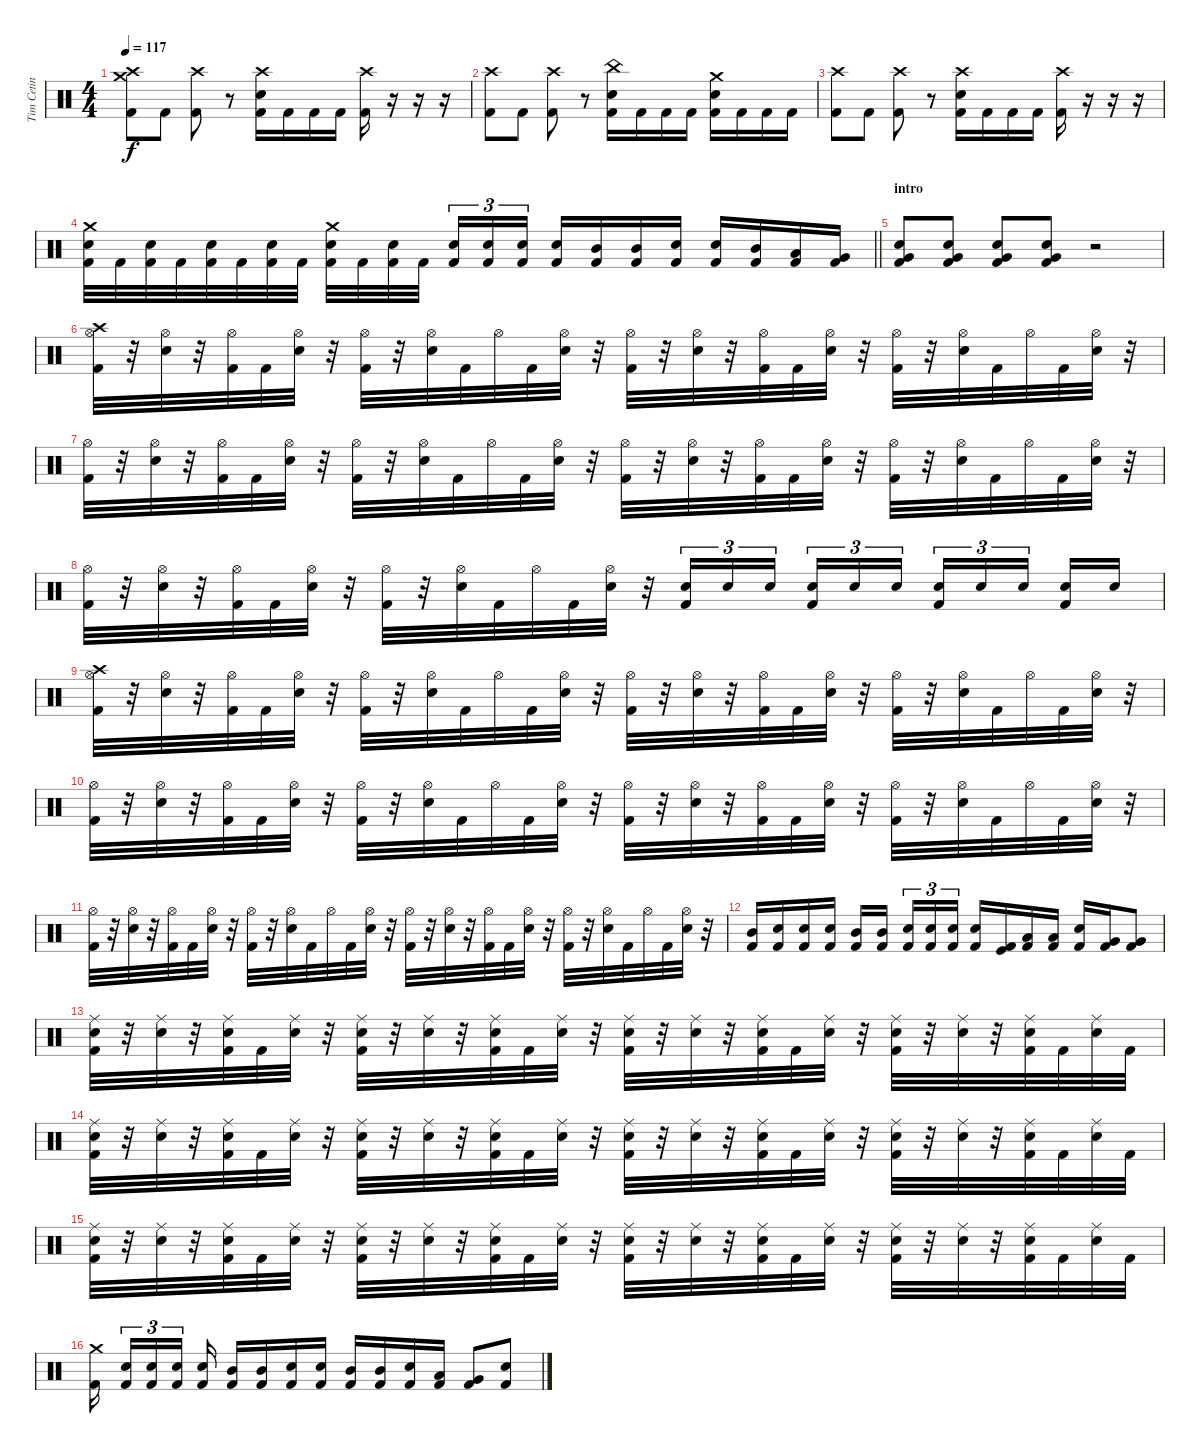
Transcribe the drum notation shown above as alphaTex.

\track ("Tim Cetin" "Tim Cetin") {instrument percussion}
\staff {score}
\articulation defaults
\ts (4 4)
\tempo 117
\clef neutral
\ks c
("Crash medium (hit)" "Crash high (hit)" "Kick (hit) 2").8{dy f} "Kick (hit) 2".8 ("Crash high (hit)" "Kick (hit) 2").8 r.8 ("Crash high (hit)" "Snare (hit) 2" "Kick (hit) 2").16 "Kick (hit) 2".16 "Kick (hit) 2".16 "Kick (hit) 2".16 ("Crash high (hit)" "Kick (hit) 2").16 r.16 r.16 r.16 |
("Crash high (hit)" "Kick (hit) 2").8 "Kick (hit) 2".8 ("Crash high (hit)" "Kick (hit) 2").8 r.8 ("China (hit)" "Snare (hit) 2" "Kick (hit) 2").16 "Kick (hit) 2".16 "Kick (hit) 2".16 "Kick (hit) 2".16 ("Crash medium (hit)" "Snare (hit) 2" "Kick (hit) 2").16 "Kick (hit) 2".16 "Kick (hit) 2".16 "Kick (hit) 2".16 |
("Crash high (hit)" "Kick (hit) 2").8 "Kick (hit) 2".8 ("Crash high (hit)" "Kick (hit) 2").8 r.8 ("Crash high (hit)" "Snare (hit) 2" "Kick (hit) 2").16 "Kick (hit) 2".16 "Kick (hit) 2".16 "Kick (hit) 2".16 ("Crash high (hit)" "Kick (hit) 2").16 r.16 r.16 r.16 |
\barLineRight lightlight
("Crash medium (hit)" "Snare (hit) 2" "Kick (hit) 2").32 "Kick (hit) 2".32 ("Snare (hit) 2" "Kick (hit) 2").32 "Kick (hit) 2".32 ("Snare (hit) 2" "Kick (hit) 2").32 "Kick (hit) 2".32 ("Snare (hit) 2" "Kick (hit) 2").32 "Kick (hit) 2".32 ("Crash medium (hit)" "Snare (hit) 2" "Kick (hit) 2").32 "Kick (hit) 2".32 ("Snare (hit) 2" "Kick (hit) 2").32 "Kick (hit) 2".32{beam splitsecondary} ("Snare (hit) 2" "Kick (hit) 2").16{tu (3 2)} ("Snare (hit) 2" "Kick (hit) 2").16{tu (3 2)} ("Snare (hit) 2" "Kick (hit) 2").16{tu (3 2)} ("Snare (hit) 2" "Kick (hit) 2").16 ("Mid Tom (hit)" "Kick (hit) 2").16 ("Mid Tom (hit)" "Kick (hit) 2").16 ("Snare (hit) 2" "Kick (hit) 2").16 ("Snare (hit) 2" "Kick (hit) 2").16 ("Mid Tom (hit)" "Kick (hit) 2").16 ("Low Tom (hit)" "Kick (hit) 2").16 ("Very Low Tom (hit)" "Kick (hit) 2").16 |
\section ("" "intro")
("Snare (hit) 2" "Very Low Tom (hit)" "Kick (hit) 2").8 ("Snare (hit) 2" "Very Low Tom (hit)" "Kick (hit) 2").8 ("Snare (hit) 2" "Very Low Tom (hit)" "Kick (hit) 2").8 ("Snare (hit) 2" "Very Low Tom (hit)" "Kick (hit) 2").8 r.2 |
("Crash high (hit)" "Hi-Hat (open)" "Kick (hit) 2").32 r.32 ("Hi-Hat (open)" "Snare (hit) 2").32 r.32 ("Hi-Hat (open)" "Kick (hit) 2").32 "Kick (hit) 2".32 ("Hi-Hat (open)" "Snare (hit) 2").32 r.32 ("Hi-Hat (open)" "Kick (hit) 2").32 r.32 ("Hi-Hat (open)" "Snare (hit) 2").32 "Kick (hit) 2".32 "Hi-Hat (open)".32 "Kick (hit) 2".32 ("Hi-Hat (open)" "Snare (hit) 2").32 r.32 ("Hi-Hat (open)" "Kick (hit) 2").32 r.32 ("Hi-Hat (open)" "Snare (hit) 2").32 r.32 ("Hi-Hat (open)" "Kick (hit) 2").32 "Kick (hit) 2".32 ("Hi-Hat (open)" "Snare (hit) 2").32 r.32 ("Hi-Hat (open)" "Kick (hit) 2").32 r.32 ("Hi-Hat (open)" "Snare (hit) 2").32 "Kick (hit) 2".32 "Hi-Hat (open)".32 "Kick (hit) 2".32 ("Hi-Hat (open)" "Snare (hit) 2").32 r.32 |
("Hi-Hat (open)" "Kick (hit) 2").32 r.32 ("Hi-Hat (open)" "Snare (hit) 2").32 r.32 ("Hi-Hat (open)" "Kick (hit) 2").32 "Kick (hit) 2".32 ("Hi-Hat (open)" "Snare (hit) 2").32 r.32 ("Hi-Hat (open)" "Kick (hit) 2").32 r.32 ("Hi-Hat (open)" "Snare (hit) 2").32 "Kick (hit) 2".32 "Hi-Hat (open)".32 "Kick (hit) 2".32 ("Hi-Hat (open)" "Snare (hit) 2").32 r.32 ("Hi-Hat (open)" "Kick (hit) 2").32 r.32 ("Hi-Hat (open)" "Snare (hit) 2").32 r.32 ("Hi-Hat (open)" "Kick (hit) 2").32 "Kick (hit) 2".32 ("Hi-Hat (open)" "Snare (hit) 2").32 r.32 ("Hi-Hat (open)" "Kick (hit) 2").32 r.32 ("Hi-Hat (open)" "Snare (hit) 2").32 "Kick (hit) 2".32 "Hi-Hat (open)".32 "Kick (hit) 2".32 ("Hi-Hat (open)" "Snare (hit) 2").32 r.32 |
("Hi-Hat (open)" "Kick (hit) 2").32 r.32 ("Hi-Hat (open)" "Snare (hit) 2").32 r.32 ("Hi-Hat (open)" "Kick (hit) 2").32 "Kick (hit) 2".32 ("Hi-Hat (open)" "Snare (hit) 2").32 r.32 ("Hi-Hat (open)" "Kick (hit) 2").32 r.32 ("Hi-Hat (open)" "Snare (hit) 2").32 "Kick (hit) 2".32 "Hi-Hat (open)".32 "Kick (hit) 2".32 ("Hi-Hat (open)" "Snare (hit) 2").32 r.32 ("Snare (hit) 2" "Kick (hit) 2").16{tu (3 2)} "Snare (hit) 2".16{tu (3 2)} "Snare (hit) 2".16{tu (3 2) beam splitsecondary} ("Snare (hit) 2" "Kick (hit) 2").16{tu (3 2)} "Snare (hit) 2".16{tu (3 2)} "Snare (hit) 2".16{tu (3 2)} ("Snare (hit) 2" "Kick (hit) 2").16{tu (3 2)} "Snare (hit) 2".16{tu (3 2)} "Snare (hit) 2".16{tu (3 2) beam splitsecondary} ("Snare (hit) 2" "Kick (hit) 2").16 "Snare (hit) 2".16 |
("Crash high (hit)" "Hi-Hat (open)" "Kick (hit) 2").32 r.32 ("Hi-Hat (open)" "Snare (hit) 2").32 r.32 ("Hi-Hat (open)" "Kick (hit) 2").32 "Kick (hit) 2".32 ("Hi-Hat (open)" "Snare (hit) 2").32 r.32 ("Hi-Hat (open)" "Kick (hit) 2").32 r.32 ("Hi-Hat (open)" "Snare (hit) 2").32 "Kick (hit) 2".32 "Hi-Hat (open)".32 "Kick (hit) 2".32 ("Hi-Hat (open)" "Snare (hit) 2").32 r.32 ("Hi-Hat (open)" "Kick (hit) 2").32 r.32 ("Hi-Hat (open)" "Snare (hit) 2").32 r.32 ("Hi-Hat (open)" "Kick (hit) 2").32 "Kick (hit) 2".32 ("Hi-Hat (open)" "Snare (hit) 2").32 r.32 ("Hi-Hat (open)" "Kick (hit) 2").32 r.32 ("Hi-Hat (open)" "Snare (hit) 2").32 "Kick (hit) 2".32 "Hi-Hat (open)".32 "Kick (hit) 2".32 ("Hi-Hat (open)" "Snare (hit) 2").32 r.32 |
("Hi-Hat (open)" "Kick (hit) 2").32 r.32 ("Hi-Hat (open)" "Snare (hit) 2").32 r.32 ("Hi-Hat (open)" "Kick (hit) 2").32 "Kick (hit) 2".32 ("Hi-Hat (open)" "Snare (hit) 2").32 r.32 ("Hi-Hat (open)" "Kick (hit) 2").32 r.32 ("Hi-Hat (open)" "Snare (hit) 2").32 "Kick (hit) 2".32 "Hi-Hat (open)".32 "Kick (hit) 2".32 ("Hi-Hat (open)" "Snare (hit) 2").32 r.32 ("Hi-Hat (open)" "Kick (hit) 2").32 r.32 ("Hi-Hat (open)" "Snare (hit) 2").32 r.32 ("Hi-Hat (open)" "Kick (hit) 2").32 "Kick (hit) 2".32 ("Hi-Hat (open)" "Snare (hit) 2").32 r.32 ("Hi-Hat (open)" "Kick (hit) 2").32 r.32 ("Hi-Hat (open)" "Snare (hit) 2").32 "Kick (hit) 2".32 "Hi-Hat (open)".32 "Kick (hit) 2".32 ("Hi-Hat (open)" "Snare (hit) 2").32 r.32 |
("Hi-Hat (open)" "Kick (hit) 2").32 r.32 ("Hi-Hat (open)" "Snare (hit) 2").32 r.32 ("Hi-Hat (open)" "Kick (hit) 2").32 "Kick (hit) 2".32 ("Hi-Hat (open)" "Snare (hit) 2").32 r.32 ("Hi-Hat (open)" "Kick (hit) 2").32 r.32 ("Hi-Hat (open)" "Snare (hit) 2").32 "Kick (hit) 2".32 "Hi-Hat (open)".32 "Kick (hit) 2".32 ("Hi-Hat (open)" "Snare (hit) 2").32 r.32 ("Hi-Hat (open)" "Kick (hit) 2").32 r.32 ("Hi-Hat (open)" "Snare (hit) 2").32 r.32 ("Hi-Hat (open)" "Kick (hit) 2").32 "Kick (hit) 2".32 ("Hi-Hat (open)" "Snare (hit) 2").32 r.32 ("Hi-Hat (open)" "Kick (hit) 2").32 r.32 ("Hi-Hat (open)" "Snare (hit) 2").32 "Kick (hit) 2".32 "Hi-Hat (open)".32 "Kick (hit) 2".32 ("Hi-Hat (open)" "Snare (hit) 2").32 r.32 |
("Mid Tom (hit)" "Kick (hit) 2").16 ("Snare (hit) 2" "Kick (hit) 2").16 ("Snare (hit) 2" "Kick (hit) 2").16 ("Snare (hit) 2" "Kick (hit) 2").16 ("Mid Tom (hit)" "Kick (hit) 2").16 ("Mid Tom (hit)" "Kick (hit) 2").16{beam splitsecondary} ("Snare (hit) 2" "Kick (hit) 2").16{tu (3 2)} ("Snare (hit) 2" "Kick (hit) 2").16{tu (3 2)} ("Snare (hit) 2" "Kick (hit) 2").16{tu (3 2)} ("Snare (hit) 2" "Kick (hit) 2").16 ("Kick (hit)" "Kick (hit) 2").16 ("Low Tom (hit)" "Kick (hit) 2").16 ("Low Tom (hit)" "Kick (hit) 2").16 ("Snare (hit) 2" "Kick (hit) 2").16 ("Very Low Tom (hit)" "Kick (hit) 2").16 ("Very Low Tom (hit)" "Kick (hit) 2").8 |
("Ride (middle)" "Snare (hit) 2" "Kick (hit) 2").32 r.32 ("Ride (middle)" "Snare (hit) 2").32 r.32 ("Ride (middle)" "Snare (hit) 2" "Kick (hit) 2").32 "Kick (hit) 2".32 ("Ride (middle)" "Snare (hit) 2").32 r.32 ("Ride (middle)" "Snare (hit) 2" "Kick (hit) 2").32 r.32 ("Ride (middle)" "Snare (hit) 2").32 r.32 ("Ride (middle)" "Snare (hit) 2" "Kick (hit) 2").32 "Kick (hit) 2".32 ("Ride (middle)" "Snare (hit) 2").32 r.32 ("Ride (middle)" "Snare (hit) 2" "Kick (hit) 2").32 r.32 ("Ride (middle)" "Snare (hit) 2").32 r.32 ("Ride (middle)" "Snare (hit) 2" "Kick (hit) 2").32 "Kick (hit) 2".32 ("Ride (middle)" "Snare (hit) 2").32 r.32 ("Ride (middle)" "Snare (hit) 2" "Kick (hit) 2").32 r.32 ("Ride (middle)" "Snare (hit) 2").32 r.32 ("Ride (middle)" "Snare (hit) 2" "Kick (hit) 2").32 "Kick (hit) 2".32 ("Ride (middle)" "Snare (hit) 2").32 "Kick (hit) 2".32 |
("Ride (middle)" "Snare (hit) 2" "Kick (hit) 2").32 r.32 ("Ride (middle)" "Snare (hit) 2").32 r.32 ("Ride (middle)" "Snare (hit) 2" "Kick (hit) 2").32 "Kick (hit) 2".32 ("Ride (middle)" "Snare (hit) 2").32 r.32 ("Ride (middle)" "Snare (hit) 2" "Kick (hit) 2").32 r.32 ("Ride (middle)" "Snare (hit) 2").32 r.32 ("Ride (middle)" "Snare (hit) 2" "Kick (hit) 2").32 "Kick (hit) 2".32 ("Ride (middle)" "Snare (hit) 2").32 r.32 ("Ride (middle)" "Snare (hit) 2" "Kick (hit) 2").32 r.32 ("Ride (middle)" "Snare (hit) 2").32 r.32 ("Ride (middle)" "Snare (hit) 2" "Kick (hit) 2").32 "Kick (hit) 2".32 ("Ride (middle)" "Snare (hit) 2").32 r.32 ("Ride (middle)" "Snare (hit) 2" "Kick (hit) 2").32 r.32 ("Ride (middle)" "Snare (hit) 2").32 r.32 ("Ride (middle)" "Snare (hit) 2" "Kick (hit) 2").32 "Kick (hit) 2".32 ("Ride (middle)" "Snare (hit) 2").32 "Kick (hit) 2".32 |
("Ride (middle)" "Snare (hit) 2" "Kick (hit) 2").32 r.32 ("Ride (middle)" "Snare (hit) 2").32 r.32 ("Ride (middle)" "Snare (hit) 2" "Kick (hit) 2").32 "Kick (hit) 2".32 ("Ride (middle)" "Snare (hit) 2").32 r.32 ("Ride (middle)" "Snare (hit) 2" "Kick (hit) 2").32 r.32 ("Ride (middle)" "Snare (hit) 2").32 r.32 ("Ride (middle)" "Snare (hit) 2" "Kick (hit) 2").32 "Kick (hit) 2".32 ("Ride (middle)" "Snare (hit) 2").32 r.32 ("Ride (middle)" "Snare (hit) 2" "Kick (hit) 2").32 r.32 ("Ride (middle)" "Snare (hit) 2").32 r.32 ("Ride (middle)" "Snare (hit) 2" "Kick (hit) 2").32 "Kick (hit) 2".32 ("Ride (middle)" "Snare (hit) 2").32 r.32 ("Ride (middle)" "Snare (hit) 2" "Kick (hit) 2").32 r.32 ("Ride (middle)" "Snare (hit) 2").32 r.32 ("Ride (middle)" "Snare (hit) 2" "Kick (hit) 2").32 "Kick (hit) 2".32 ("Ride (middle)" "Snare (hit) 2").32 "Kick (hit) 2".32 |
("Crash medium (hit)" "Kick (hit) 2").16{beam splitsecondary} ("Snare (hit) 2" "Kick (hit) 2").16{tu (3 2)} ("Snare (hit) 2" "Kick (hit) 2").16{tu (3 2)} ("Snare (hit) 2" "Kick (hit) 2").16{tu (3 2) beam splitsecondary} ("Snare (hit) 2" "Kick (hit) 2").16 ("Mid Tom (hit)" "Kick (hit) 2").16 ("Mid Tom (hit)" "Kick (hit) 2").16 ("Snare (hit) 2" "Kick (hit) 2").16 ("Snare (hit) 2" "Kick (hit) 2").16 ("Mid Tom (hit)" "Kick (hit) 2").16 ("Mid Tom (hit)" "Kick (hit) 2").16 ("Snare (hit) 2" "Kick (hit) 2").16 ("Low Tom (hit)" "Kick (hit) 2").16 ("Very Low Tom (hit)" "Kick (hit) 2").8 ("Snare (hit) 2" "Kick (hit) 2").8
